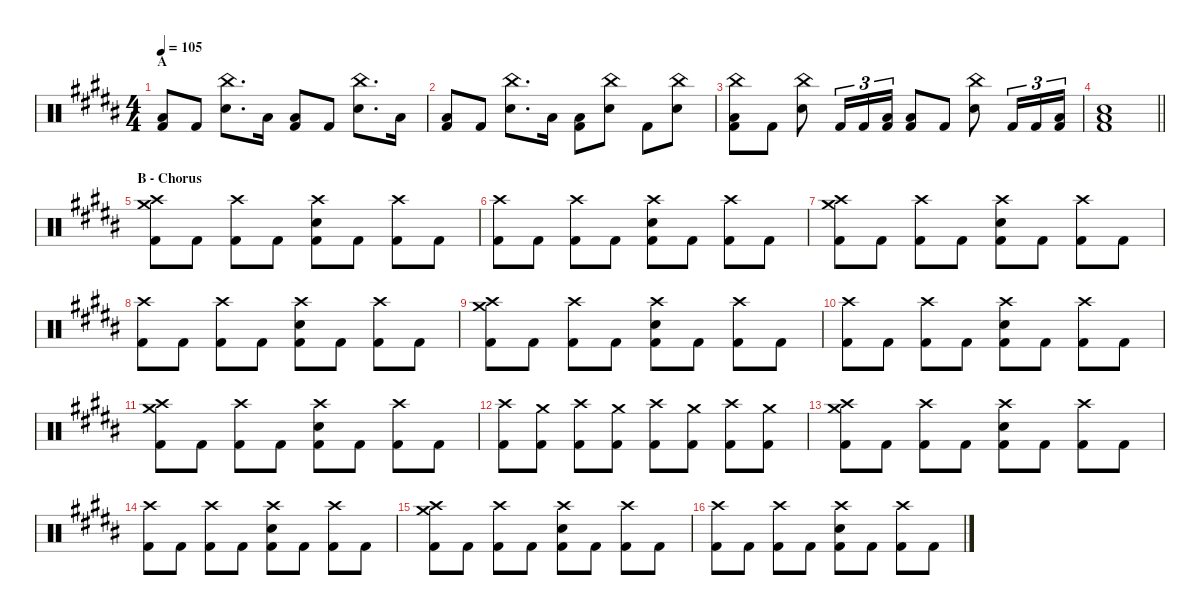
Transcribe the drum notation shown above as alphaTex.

\defaultSystemsLayout 4
\hideDynamics
\bracketExtendMode nobrackets
\singleTrackTrackNamePolicy hidden
\multiTrackTrackNamePolicy hidden
\firstSystemTrackNameMode fullname
\firstSystemTrackNameOrientation horizontal
\otherSystemsTrackNameOrientation horizontal
\track ("Percussions" "drm.") {instrument percussion}
\staff {score}
\articulation defaults
\ts (4 4)
\section ("" "A")
\tempo 105
\clef neutral
\ks b
("Low Tom (hit)"{acc bb} "Kick (hit) 2"{acc bb}).8{dy f beam Up} "Kick (hit) 2"{acc bb}.8{beam Up} ("China (hit)"{acc bb} "Snare (hit) 2"{acc bb}).8{d beam Down} "Low Tom (hit)"{acc bb}.16{beam Down} ("Low Tom (hit)"{acc bb} "Kick (hit) 2"{acc bb}).8{beam Up} "Kick (hit) 2"{acc bb}.8{beam Up} ("China (hit)"{acc bb} "Snare (hit) 2"{acc bb}).8{d beam Down} "Low Tom (hit)"{acc bb}.16{beam Down} |
("Low Tom (hit)"{acc bb} "Kick (hit) 2"{acc bb}).8{beam Up} "Kick (hit) 2"{acc bb}.8{beam Up} ("China (hit)"{acc bb} "Snare (hit) 2"{acc bb}).8{d beam Down} "Low Tom (hit)"{acc bb}.16{beam Down} ("Low Tom (hit)"{acc bb} "Kick (hit) 2"{acc bb}).8{beam Down} ("China (hit)"{acc bb} "Snare (hit) 2"{acc bb}).8{beam Down} "Kick (hit) 2"{acc bb}.8{beam Down} ("China (hit)"{acc bb} "Snare (hit) 2"{acc bb}).8{beam Down} |
("China (hit)"{acc bb} "Low Tom (hit)"{acc bb} "Kick (hit) 2"{acc bb}).8{beam Down} "Kick (hit) 2"{acc bb}.8{beam Down} ("China (hit)"{acc bb} "Snare (hit) 2"{acc bb}).8{beam Down} "Kick (hit) 2"{acc bb}.16{tu (3 2) dy fff beam Up} "Kick (hit) 2"{acc bb}.16{tu (3 2) beam Up} ("Low Tom (hit)"{acc bb} "Kick (hit) 2"{acc bb}).16{tu (3 2) dy f beam Up} ("Low Tom (hit)"{acc bb} "Kick (hit) 2"{acc bb}).8{beam Up} "Kick (hit) 2"{acc bb}.8{beam Up} ("China (hit)"{acc bb} "Snare (hit) 2"{acc bb}).8{beam Down} "Kick (hit) 2"{acc bb}.16{tu (3 2) dy fff beam Up} "Kick (hit) 2"{acc bb}.16{tu (3 2) beam Up} ("Low Tom (hit)"{acc bb} "Kick (hit) 2"{acc bb}).16{tu (3 2) dy f beam Up} |
\barLineRight lightlight
("Low Tom (hit)"{acc bb} "Snare (hit) 2"{acc bb} "Kick (hit) 2"{acc bb}).1{dy fff beam Up} |
\section ("" "B - Chorus")
("Crash medium (hit)"{acc bb} "Crash high (hit)"{acc bb} "Kick (hit) 2"{acc bb}).8{dy f beam Down} "Kick (hit) 2"{acc bb}.8{beam Down} ("Crash high (hit)"{acc bb} "Kick (hit) 2"{acc bb}).8{beam Down} "Kick (hit) 2"{acc bb}.8{beam Down} ("Crash high (hit)"{acc bb} "Snare (hit) 2"{acc bb} "Kick (hit) 2"{acc bb}).8{beam Down} "Kick (hit) 2"{acc bb}.8{beam Down} ("Crash high (hit)"{acc bb} "Kick (hit) 2"{acc bb}).8{beam Down} "Kick (hit) 2"{acc bb}.8{beam Down} |
("Crash high (hit)"{acc bb} "Kick (hit) 2"{acc bb}).8{beam Down} "Kick (hit) 2"{acc bb}.8{beam Down} ("Crash high (hit)"{acc bb} "Kick (hit) 2"{acc bb}).8{beam Down} "Kick (hit) 2"{acc bb}.8{beam Down} ("Crash high (hit)"{acc bb} "Snare (hit) 2"{acc bb} "Kick (hit) 2"{acc bb}).8{beam Down} "Kick (hit) 2"{acc bb}.8{beam Down} ("Crash high (hit)"{acc bb} "Kick (hit) 2"{acc bb}).8{beam Down} "Kick (hit) 2"{acc bb}.8{beam Down} |
("Crash medium (hit)"{acc bb} "Crash high (hit)"{acc bb} "Kick (hit) 2"{acc bb}).8{beam Down} "Kick (hit) 2"{acc bb}.8{beam Down} ("Crash high (hit)"{acc bb} "Kick (hit) 2"{acc bb}).8{beam Down} "Kick (hit) 2"{acc bb}.8{beam Down} ("Crash high (hit)"{acc bb} "Snare (hit) 2"{acc bb} "Kick (hit) 2"{acc bb}).8{beam Down} "Kick (hit) 2"{acc bb}.8{beam Down} ("Crash high (hit)"{acc bb} "Kick (hit) 2"{acc bb}).8{beam Down} "Kick (hit) 2"{acc bb}.8{beam Down} |
("Crash high (hit)"{acc bb} "Kick (hit) 2"{acc bb}).8{beam Down} "Kick (hit) 2"{acc bb}.8{beam Down} ("Crash high (hit)"{acc bb} "Kick (hit) 2"{acc bb}).8{beam Down} "Kick (hit) 2"{acc bb}.8{beam Down} ("Crash high (hit)"{acc bb} "Snare (hit) 2"{acc bb} "Kick (hit) 2"{acc bb}).8{beam Down} "Kick (hit) 2"{acc bb}.8{beam Down} ("Crash high (hit)"{acc bb} "Kick (hit) 2"{acc bb}).8{beam Down} "Kick (hit) 2"{acc bb}.8{beam Down} |
("Crash medium (hit)"{acc bb} "Crash high (hit)"{acc bb} "Kick (hit) 2"{acc bb}).8{beam Down} "Kick (hit) 2"{acc bb}.8{beam Down} ("Crash high (hit)"{acc bb} "Kick (hit) 2"{acc bb}).8{beam Down} "Kick (hit) 2"{acc bb}.8{beam Down} ("Crash high (hit)"{acc bb} "Snare (hit) 2"{acc bb} "Kick (hit) 2"{acc bb}).8{beam Down} "Kick (hit) 2"{acc bb}.8{beam Down} ("Crash high (hit)"{acc bb} "Kick (hit) 2"{acc bb}).8{beam Down} "Kick (hit) 2"{acc bb}.8{beam Down} |
("Crash high (hit)"{acc bb} "Kick (hit) 2"{acc bb}).8{beam Down} "Kick (hit) 2"{acc bb}.8{beam Down} ("Crash high (hit)"{acc bb} "Kick (hit) 2"{acc bb}).8{beam Down} "Kick (hit) 2"{acc bb}.8{beam Down} ("Crash high (hit)"{acc bb} "Snare (hit) 2"{acc bb} "Kick (hit) 2"{acc bb}).8{beam Down} "Kick (hit) 2"{acc bb}.8{beam Down} ("Crash high (hit)"{acc bb} "Kick (hit) 2"{acc bb}).8{beam Down} "Kick (hit) 2"{acc bb}.8{beam Down} |
("Crash medium (hit)"{acc bb} "Crash high (hit)"{acc bb} "Kick (hit) 2"{acc bb}).8{beam Down} "Kick (hit) 2"{acc bb}.8{beam Down} ("Crash high (hit)"{acc bb} "Kick (hit) 2"{acc bb}).8{beam Down} "Kick (hit) 2"{acc bb}.8{beam Down} ("Crash high (hit)"{acc bb} "Snare (hit) 2"{acc bb} "Kick (hit) 2"{acc bb}).8{beam Down} "Kick (hit) 2"{acc bb}.8{beam Down} ("Crash high (hit)"{acc bb} "Kick (hit) 2"{acc bb}).8{beam Down} "Kick (hit) 2"{acc bb}.8{beam Down} |
("Crash high (hit)"{acc bb} "Kick (hit) 2"{acc bb}).8{beam Down} ("Crash medium (hit)"{acc bb} "Kick (hit) 2"{acc bb}).8{beam Down} ("Crash high (hit)"{acc bb} "Kick (hit) 2"{acc bb}).8{beam Down} ("Crash medium (hit)"{acc bb} "Kick (hit) 2"{acc bb}).8{beam Down} ("Crash high (hit)"{acc bb} "Kick (hit) 2"{acc bb}).8{beam Down} ("Crash medium (hit)"{acc bb} "Kick (hit) 2"{acc bb}).8{beam Down} ("Crash high (hit)"{acc bb} "Kick (hit) 2"{acc bb}).8{beam Down} ("Crash medium (hit)"{acc bb} "Kick (hit) 2"{acc bb}).8{beam Down} |
("Crash medium (hit)"{acc bb} "Crash high (hit)"{acc bb} "Kick (hit) 2"{acc bb}).8{beam Down} "Kick (hit) 2"{acc bb}.8{beam Down} ("Crash high (hit)"{acc bb} "Kick (hit) 2"{acc bb}).8{beam Down} "Kick (hit) 2"{acc bb}.8{beam Down} ("Crash high (hit)"{acc bb} "Snare (hit) 2"{acc bb} "Kick (hit) 2"{acc bb}).8{beam Down} "Kick (hit) 2"{acc bb}.8{beam Down} ("Crash high (hit)"{acc bb} "Kick (hit) 2"{acc bb}).8{beam Down} "Kick (hit) 2"{acc bb}.8{beam Down} |
("Crash high (hit)"{acc bb} "Kick (hit) 2"{acc bb}).8{beam Down} "Kick (hit) 2"{acc bb}.8{beam Down} ("Crash high (hit)"{acc bb} "Kick (hit) 2"{acc bb}).8{beam Down} "Kick (hit) 2"{acc bb}.8{beam Down} ("Crash high (hit)"{acc bb} "Snare (hit) 2"{acc bb} "Kick (hit) 2"{acc bb}).8{beam Down} "Kick (hit) 2"{acc bb}.8{beam Down} ("Crash high (hit)"{acc bb} "Kick (hit) 2"{acc bb}).8{beam Down} "Kick (hit) 2"{acc bb}.8{beam Down} |
("Crash medium (hit)"{acc bb} "Crash high (hit)"{acc bb} "Kick (hit) 2"{acc bb}).8{beam Down} "Kick (hit) 2"{acc bb}.8{beam Down} ("Crash high (hit)"{acc bb} "Kick (hit) 2"{acc bb}).8{beam Down} "Kick (hit) 2"{acc bb}.8{beam Down} ("Crash high (hit)"{acc bb} "Snare (hit) 2"{acc bb} "Kick (hit) 2"{acc bb}).8{beam Down} "Kick (hit) 2"{acc bb}.8{beam Down} ("Crash high (hit)"{acc bb} "Kick (hit) 2"{acc bb}).8{beam Down} "Kick (hit) 2"{acc bb}.8{beam Down} |
("Crash high (hit)"{acc bb} "Kick (hit) 2"{acc bb}).8{beam Down} "Kick (hit) 2"{acc bb}.8{beam Down} ("Crash high (hit)"{acc bb} "Kick (hit) 2"{acc bb}).8{beam Down} "Kick (hit) 2"{acc bb}.8{beam Down} ("Crash high (hit)"{acc bb} "Snare (hit) 2"{acc bb} "Kick (hit) 2"{acc bb}).8{beam Down} "Kick (hit) 2"{acc bb}.8{beam Down} ("Crash high (hit)"{acc bb} "Kick (hit) 2"{acc bb}).8{beam Down} "Kick (hit) 2"{acc bb}.8{beam Down}
